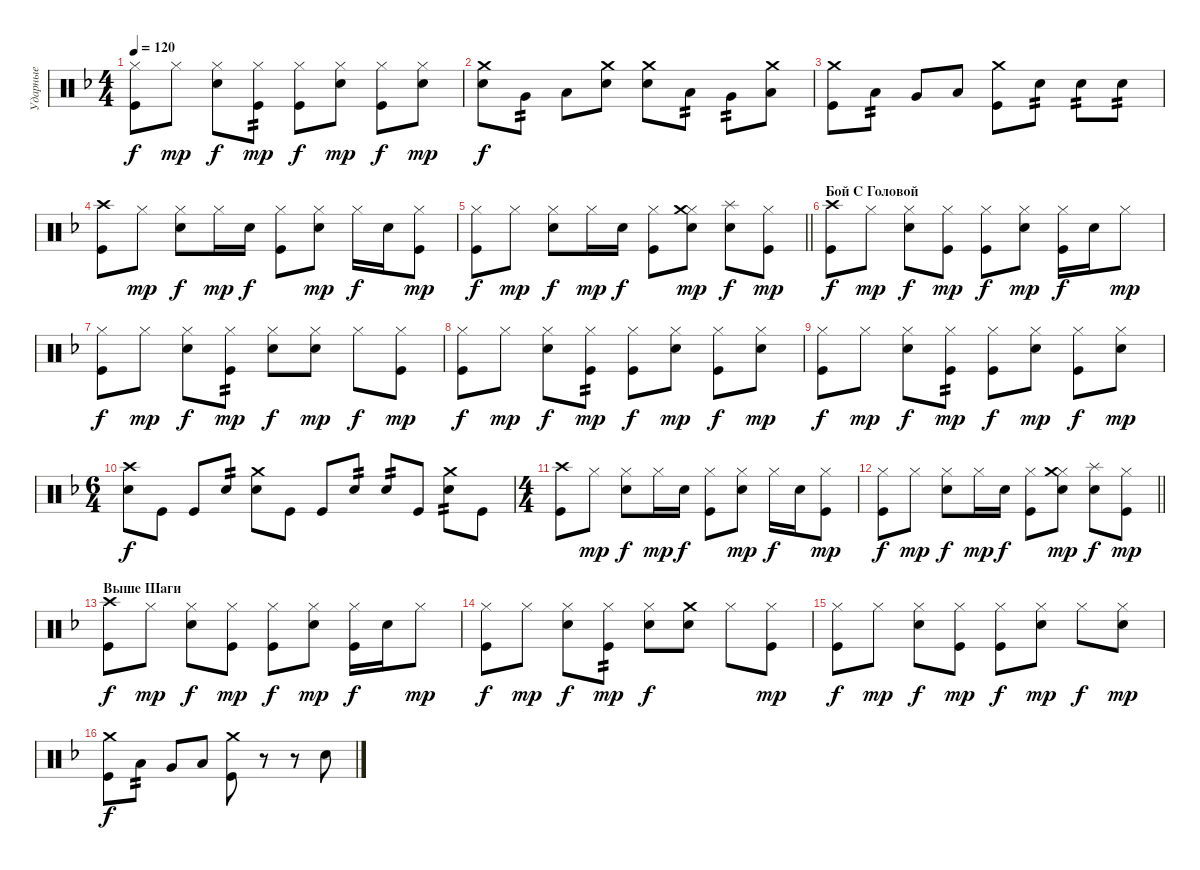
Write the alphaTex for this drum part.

\track ("Ударные" "Ударные") {instrument percussion}
\staff {score}
\articulation defaults
\ts (4 4)
\tempo 120
\clef neutral
\ks dminor
("Hi-Hat (closed)" "Kick (hit)").8{dy f} "Hi-Hat (closed)".8{dy mp} ("Hi-Hat (closed)" "Snare (hit) 2").8{dy f} ("Hi-Hat (closed)" "Kick (hit)").8{tp 2 dy mp} ("Hi-Hat (closed)" "Kick (hit)").8{dy f} ("Hi-Hat (closed)" "Snare (hit) 2").8{dy mp} ("Hi-Hat (closed)" "Kick (hit)").8{dy f} ("Hi-Hat (closed)" "Snare (hit) 2").8{dy mp} |
("Crash medium (hit)" "Snare (hit) 2").8{dy f} "Very Low Tom (hit)".8{tp 2} "Low Floor Tom (hit)".8 ("Crash medium (hit)" "Snare (hit) 2").8 ("Crash medium (hit)" "Snare (hit) 2").8 "Low Tom (hit)".8{tp 2} "Very Low Tom (hit)".8{tp 2} ("Crash medium (hit)" "Low Floor Tom (hit)").8 |
("Crash medium (hit)" "Kick (hit)").8 "Low Tom (hit)".8{tp 2} "Very Low Tom (hit)".8 "Low Floor Tom (hit)".8 ("Crash medium (hit)" "Kick (hit)").8 "Snare (hit) 2".8{tp 2} "Snare (hit) 2".8{tp 2} "Snare (hit) 2".8{tp 2} |
("Crash high (hit)" "Kick (hit)").8 "Hi-Hat (closed)".8{dy mp} ("Hi-Hat (closed)" "Snare (hit) 2").8{dy f} "Hi-Hat (closed)".16{dy mp} "Snare (hit) 2".16{dy f} ("Hi-Hat (closed)" "Kick (hit)").8 ("Hi-Hat (closed)" "Snare (hit) 2").8{dy mp} "Hi-Hat (closed)".16{dy f} "Snare (hit) 2".16 ("Hi-Hat (closed)" "Kick (hit)").8{dy mp} |
\barLineRight lightlight
("Hi-Hat (closed)" "Kick (hit)").8{dy f} "Hi-Hat (closed)".8{dy mp} ("Hi-Hat (closed)" "Snare (hit) 2").8{dy f} "Hi-Hat (closed)".16{dy mp} "Snare (hit) 2".16{dy f} ("Hi-Hat (closed)" "Kick (hit)").8 ("Hi-Hat (closed)" "Crash medium (hit)" "Snare (hit) 2").8{dy mp} ("Splash (hit)" "Snare (hit) 2").8{dy f} ("Hi-Hat (closed)" "Kick (hit)").8{dy mp} |
\section ("" "Бой С Головой")
("Crash high (hit)" "Kick (hit)").8{dy f} "Hi-Hat (closed)".8{dy mp} ("Hi-Hat (closed)" "Snare (hit) 2").8{dy f} ("Hi-Hat (closed)" "Kick (hit)").8{dy mp} ("Hi-Hat (closed)" "Kick (hit)").8{dy f} ("Hi-Hat (closed)" "Snare (hit) 2").8{dy mp} ("Hi-Hat (closed)" "Kick (hit)").16{dy f} "Snare (hit) 2".16 "Hi-Hat (closed)".8{dy mp} |
("Hi-Hat (closed)" "Kick (hit)").8{dy f} "Hi-Hat (closed)".8{dy mp} ("Hi-Hat (closed)" "Snare (hit) 2").8{dy f} ("Hi-Hat (closed)" "Kick (hit)").8{tp 2 dy mp} ("Hi-Hat (closed)" "Snare (hit) 2").8{dy f} ("Hi-Hat (closed)" "Snare (hit) 2").8{dy mp} "Hi-Hat (closed)".8{dy f} ("Hi-Hat (closed)" "Kick (hit)").8{dy mp} |
("Hi-Hat (closed)" "Kick (hit)").8{dy f} "Hi-Hat (closed)".8{dy mp} ("Hi-Hat (closed)" "Snare (hit) 2").8{dy f} ("Hi-Hat (closed)" "Kick (hit)").8{tp 2 dy mp} ("Hi-Hat (closed)" "Kick (hit)").8{dy f} ("Hi-Hat (closed)" "Snare (hit) 2").8{dy mp} ("Hi-Hat (closed)" "Kick (hit)").8{dy f} ("Hi-Hat (closed)" "Snare (hit) 2").8{dy mp} |
("Hi-Hat (closed)" "Kick (hit)").8{dy f} "Hi-Hat (closed)".8{dy mp} ("Hi-Hat (closed)" "Snare (hit) 2").8{dy f} ("Hi-Hat (closed)" "Kick (hit)").8{tp 2 dy mp} ("Hi-Hat (closed)" "Kick (hit)").8{dy f} ("Hi-Hat (closed)" "Snare (hit) 2").8{dy mp} ("Hi-Hat (closed)" "Kick (hit)").8{dy f} ("Hi-Hat (closed)" "Snare (hit) 2").8{dy mp} |
\ts (6 4)
("Crash high (hit)" "Snare (hit) 2").8{dy f} "Kick (hit)".8 "Kick (hit)".8 "Snare (hit) 2".8{tp 2} ("Crash medium (hit)" "Snare (hit) 2").8 "Kick (hit)".8 "Kick (hit)".8 "Snare (hit) 2".8{tp 2} "Snare (hit) 2".8{tp 2} "Kick (hit)".8 ("Crash medium (hit)" "Snare (hit) 2").8{tp 2} "Kick (hit)".8 |
\ts (4 4)
("Crash high (hit)" "Kick (hit)").8 "Hi-Hat (closed)".8{dy mp} ("Hi-Hat (closed)" "Snare (hit) 2").8{dy f} "Hi-Hat (closed)".16{dy mp} "Snare (hit) 2".16{dy f} ("Hi-Hat (closed)" "Kick (hit)").8 ("Hi-Hat (closed)" "Snare (hit) 2").8{dy mp} "Hi-Hat (closed)".16{dy f} "Snare (hit) 2".16 ("Hi-Hat (closed)" "Kick (hit)").8{dy mp} |
\barLineRight lightlight
("Hi-Hat (closed)" "Kick (hit)").8{dy f} "Hi-Hat (closed)".8{dy mp} ("Hi-Hat (closed)" "Snare (hit) 2").8{dy f} "Hi-Hat (closed)".16{dy mp} "Snare (hit) 2".16{dy f} ("Hi-Hat (closed)" "Kick (hit)").8 ("Hi-Hat (closed)" "Crash medium (hit)" "Snare (hit) 2").8{dy mp} ("Splash (hit)" "Snare (hit) 2").8{dy f} ("Hi-Hat (closed)" "Kick (hit)").8{dy mp} |
\section ("" "Выше Шаги")
("Crash high (hit)" "Kick (hit)").8{dy f} "Hi-Hat (closed)".8{dy mp} ("Hi-Hat (closed)" "Snare (hit) 2").8{dy f} ("Hi-Hat (closed)" "Kick (hit)").8{dy mp} ("Hi-Hat (closed)" "Kick (hit)").8{dy f} ("Hi-Hat (closed)" "Snare (hit) 2").8{dy mp} ("Hi-Hat (closed)" "Kick (hit)").16{dy f} "Snare (hit) 2".16 "Hi-Hat (closed)".8{dy mp} |
("Hi-Hat (closed)" "Kick (hit)").8{dy f} "Hi-Hat (closed)".8{dy mp} ("Hi-Hat (closed)" "Snare (hit) 2").8{dy f} ("Hi-Hat (closed)" "Kick (hit)").8{tp 2 dy mp} ("Hi-Hat (closed)" "Snare (hit) 2").8{dy f} ("Crash medium (hit)" "Snare (hit) 2").8 "Hi-Hat (closed)".8 ("Hi-Hat (closed)" "Kick (hit)").8{dy mp} |
("Hi-Hat (closed)" "Kick (hit)").8{dy f} "Hi-Hat (closed)".8{dy mp} ("Hi-Hat (closed)" "Snare (hit) 2").8{dy f} ("Hi-Hat (closed)" "Kick (hit)").8{dy mp} ("Hi-Hat (closed)" "Kick (hit)").8{dy f} ("Hi-Hat (closed)" "Snare (hit) 2").8{dy mp} "Hi-Hat (closed)".8{dy f} ("Hi-Hat (closed)" "Snare (hit) 2").8{dy mp} |
("Crash medium (hit)" "Kick (hit)").8{dy f} "Low Tom (hit)".8{tp 2} "Very Low Tom (hit)".8 "Low Floor Tom (hit)".8 ("Crash medium (hit)" "Kick (hit)").8 r.8 r.8 "Snare (hit) 2".8
